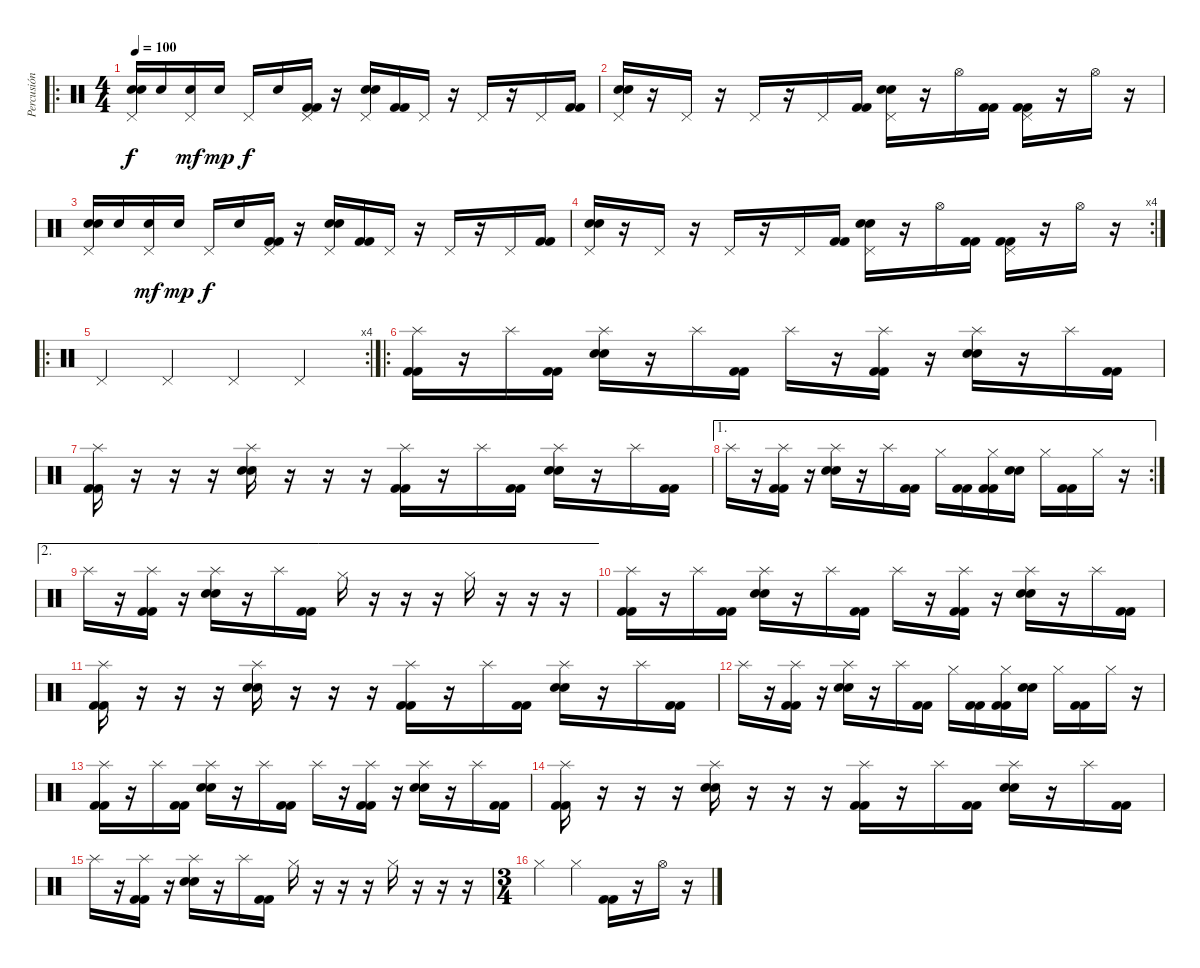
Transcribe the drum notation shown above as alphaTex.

\track ("Percusión" "Percusión") {instrument percussion}
\staff {score}
\articulation defaults
\ro
\ts (4 4)
\tempo 100
\clef neutral
\ks c
("Pedal Hi-Hat (hit)" "Electric Snare (hit)" "Electric Snare (hit)").16{dy f} "Electric Snare (hit)".16 ("Pedal Hi-Hat (hit)" "Electric Snare (hit)").16{dy mf} "Electric Snare (hit)".16{dy mp} "Pedal Hi-Hat (hit)".16{dy f} "Electric Snare (hit)".16 ("Pedal Hi-Hat (hit)" "Kick (hit) 2" "Kick (hit) 2").16 r.16 ("Pedal Hi-Hat (hit)" "Electric Snare (hit)" "Electric Snare (hit)").16 ("Kick (hit) 2" "Kick (hit) 2").16 "Pedal Hi-Hat (hit)".16 r.16 "Pedal Hi-Hat (hit)".16 r.16 "Pedal Hi-Hat (hit)".16 ("Kick (hit) 2" "Kick (hit) 2").16 |
("Pedal Hi-Hat (hit)" "Electric Snare (hit)" "Electric Snare (hit)").16 r.16 "Pedal Hi-Hat (hit)".16 r.16 "Pedal Hi-Hat (hit)".16 r.16 "Pedal Hi-Hat (hit)".16 ("Kick (hit) 2" "Kick (hit) 2").16 ("Pedal Hi-Hat (hit)" "Electric Snare (hit)" "Electric Snare (hit)").16 r.16 "Hi-Hat (open)".16 ("Kick (hit) 2" "Kick (hit) 2").16 ("Pedal Hi-Hat (hit)" "Kick (hit) 2" "Kick (hit) 2").16 r.16 "Hi-Hat (open)".16 r.16 |
("Pedal Hi-Hat (hit)" "Electric Snare (hit)" "Electric Snare (hit)").16 "Electric Snare (hit)".16 ("Pedal Hi-Hat (hit)" "Electric Snare (hit)").16{dy mf} "Electric Snare (hit)".16{dy mp} "Pedal Hi-Hat (hit)".16{dy f} "Electric Snare (hit)".16 ("Pedal Hi-Hat (hit)" "Kick (hit) 2" "Kick (hit) 2").16 r.16 ("Pedal Hi-Hat (hit)" "Electric Snare (hit)" "Electric Snare (hit)").16 ("Kick (hit) 2" "Kick (hit) 2").16 "Pedal Hi-Hat (hit)".16 r.16 "Pedal Hi-Hat (hit)".16 r.16 "Pedal Hi-Hat (hit)".16 ("Kick (hit) 2" "Kick (hit) 2").16 |
\rc 4
("Pedal Hi-Hat (hit)" "Electric Snare (hit)" "Electric Snare (hit)").16 r.16 "Pedal Hi-Hat (hit)".16 r.16 "Pedal Hi-Hat (hit)".16 r.16 "Pedal Hi-Hat (hit)".16 ("Kick (hit) 2" "Kick (hit) 2").16 ("Pedal Hi-Hat (hit)" "Electric Snare (hit)" "Electric Snare (hit)").16 r.16 "Hi-Hat (open)".16 ("Kick (hit) 2" "Kick (hit) 2").16 ("Pedal Hi-Hat (hit)" "Kick (hit) 2" "Kick (hit) 2").16 r.16 "Hi-Hat (open)".16 r.16 |
\ro
\rc 4 "Pedal Hi-Hat (hit)".4 "Pedal Hi-Hat (hit)".4 "Pedal Hi-Hat (hit)".4 "Pedal Hi-Hat (hit)".4
|
\ro
("Splash (hit)" "Kick (hit) 2" "Kick (hit) 2").16 r.16 "Splash (hit)".16 ("Kick (hit) 2" "Kick (hit) 2").16 ("Splash (hit)" "Electric Snare (hit)" "Electric Snare (hit)").16 r.16 "Splash (hit)".16 ("Kick (hit) 2" "Kick (hit) 2").16 "Splash (hit)".16 r.16 ("Splash (hit)" "Kick (hit) 2" "Kick (hit) 2").16 r.16 ("Splash (hit)" "Electric Snare (hit)" "Electric Snare (hit)").16 r.16 "Splash (hit)".16 ("Kick (hit) 2" "Kick (hit) 2").16 |
("Splash (hit)" "Kick (hit) 2" "Kick (hit) 2").16 r.16 r.16 r.16 ("Splash (hit)" "Electric Snare (hit)" "Electric Snare (hit)").16 r.16 r.16 r.16 ("Splash (hit)" "Kick (hit) 2" "Kick (hit) 2").16 r.16 "Splash (hit)".16 ("Kick (hit) 2" "Kick (hit) 2").16 ("Splash (hit)" "Electric Snare (hit)" "Electric Snare (hit)").16 r.16 "Splash (hit)".16 ("Kick (hit) 2" "Kick (hit) 2").16 |
\ae 1
\rc 2 "Splash (hit)".16
r.16 ("Splash (hit)" "Kick (hit) 2" "Kick (hit) 2").16 r.16 ("Splash (hit)" "Electric Snare (hit)" "Electric Snare (hit)").16 r.16 "Splash (hit)".16 ("Kick (hit) 2" "Kick (hit) 2").16 "Hi-Hat (closed)".16 ("Kick (hit) 2" "Kick (hit) 2").16 ("Hi-Hat (closed)" "Kick (hit) 2" "Kick (hit) 2").16 ("Electric Snare (hit)" "Electric Snare (hit)").16 "Hi-Hat (closed)".16 ("Kick (hit) 2" "Kick (hit) 2").16 "Hi-Hat (closed)".16 r.16 |
\ae 2 "Splash (hit)".16
r.16 ("Splash (hit)" "Kick (hit) 2" "Kick (hit) 2").16 r.16 ("Splash (hit)" "Electric Snare (hit)" "Electric Snare (hit)").16 r.16 "Splash (hit)".16 ("Kick (hit) 2" "Kick (hit) 2").16 "Hi-Hat (closed)".16 r.16 r.16 r.16 "Hi-Hat (closed)".16 r.16 r.16 r.16 |
("Splash (hit)" "Kick (hit) 2" "Kick (hit) 2").16 r.16 "Splash (hit)".16 ("Kick (hit) 2" "Kick (hit) 2").16 ("Splash (hit)" "Electric Snare (hit)" "Electric Snare (hit)").16 r.16 "Splash (hit)".16 ("Kick (hit) 2" "Kick (hit) 2").16 "Splash (hit)".16 r.16 ("Splash (hit)" "Kick (hit) 2" "Kick (hit) 2").16 r.16 ("Splash (hit)" "Electric Snare (hit)" "Electric Snare (hit)").16 r.16 "Splash (hit)".16 ("Kick (hit) 2" "Kick (hit) 2").16 |
("Splash (hit)" "Kick (hit) 2" "Kick (hit) 2").16 r.16 r.16 r.16 ("Splash (hit)" "Electric Snare (hit)" "Electric Snare (hit)").16 r.16 r.16 r.16 ("Splash (hit)" "Kick (hit) 2" "Kick (hit) 2").16 r.16 "Splash (hit)".16 ("Kick (hit) 2" "Kick (hit) 2").16 ("Splash (hit)" "Electric Snare (hit)" "Electric Snare (hit)").16 r.16 "Splash (hit)".16 ("Kick (hit) 2" "Kick (hit) 2").16 |
"Splash (hit)".16 r.16 ("Splash (hit)" "Kick (hit) 2" "Kick (hit) 2").16 r.16 ("Splash (hit)" "Electric Snare (hit)" "Electric Snare (hit)").16 r.16 "Splash (hit)".16 ("Kick (hit) 2" "Kick (hit) 2").16 "Hi-Hat (closed)".16 ("Kick (hit) 2" "Kick (hit) 2").16 ("Hi-Hat (closed)" "Kick (hit) 2" "Kick (hit) 2").16 ("Electric Snare (hit)" "Electric Snare (hit)").16 "Hi-Hat (closed)".16 ("Kick (hit) 2" "Kick (hit) 2").16 "Hi-Hat (closed)".16 r.16 |
("Splash (hit)" "Kick (hit) 2" "Kick (hit) 2").16 r.16 "Splash (hit)".16 ("Kick (hit) 2" "Kick (hit) 2").16 ("Splash (hit)" "Electric Snare (hit)" "Electric Snare (hit)").16 r.16 "Splash (hit)".16 ("Kick (hit) 2" "Kick (hit) 2").16 "Splash (hit)".16 r.16 ("Splash (hit)" "Kick (hit) 2" "Kick (hit) 2").16 r.16 ("Splash (hit)" "Electric Snare (hit)" "Electric Snare (hit)").16 r.16 "Splash (hit)".16 ("Kick (hit) 2" "Kick (hit) 2").16 |
("Splash (hit)" "Kick (hit) 2" "Kick (hit) 2").16 r.16 r.16 r.16 ("Splash (hit)" "Electric Snare (hit)" "Electric Snare (hit)").16 r.16 r.16 r.16 ("Splash (hit)" "Kick (hit) 2" "Kick (hit) 2").16 r.16 "Splash (hit)".16 ("Kick (hit) 2" "Kick (hit) 2").16 ("Splash (hit)" "Electric Snare (hit)" "Electric Snare (hit)").16 r.16 "Splash (hit)".16 ("Kick (hit) 2" "Kick (hit) 2").16 |
"Splash (hit)".16 r.16 ("Splash (hit)" "Kick (hit) 2" "Kick (hit) 2").16 r.16 ("Splash (hit)" "Electric Snare (hit)" "Electric Snare (hit)").16 r.16 "Splash (hit)".16 ("Kick (hit) 2" "Kick (hit) 2").16 "Hi-Hat (closed)".16 r.16 r.16 r.16 "Hi-Hat (closed)".16 r.16 r.16 r.16 |
\ts (3 4)
"Hi-Hat (closed)".4 "Hi-Hat (closed)".4 ("Kick (hit) 2" "Kick (hit) 2").16 r.16 "Hi-Hat (open)".16 r.16
